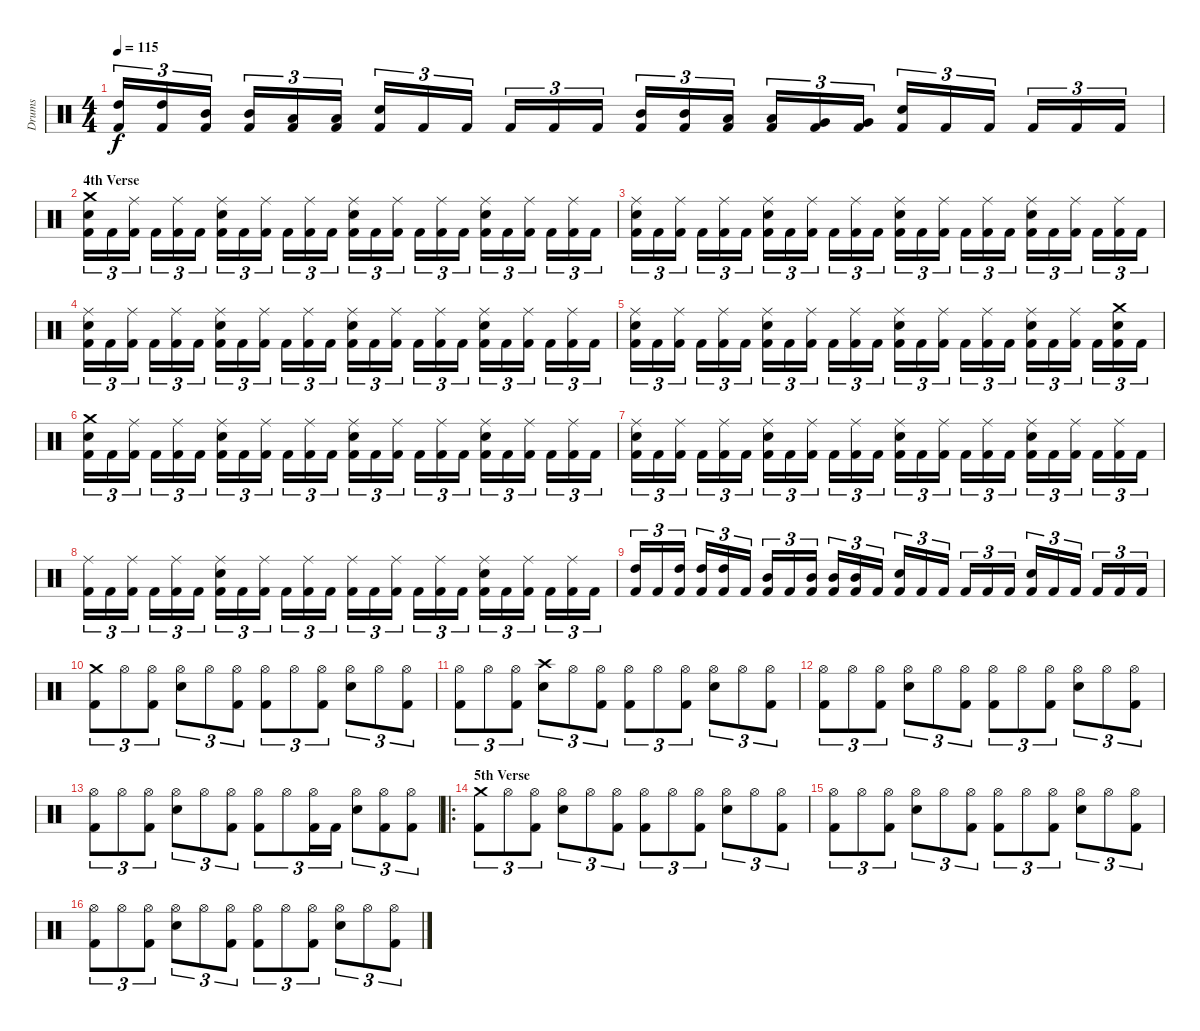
\track ("Drums" "Drums") {instrument percussion}
\staff {score}
\articulation defaults
\ts (4 4)
\tempo 115
\clef neutral
\ks c
("Kick (hit) 2" "High Tom (hit)").16{tu (3 2) dy f} ("Kick (hit) 2" "High Tom (hit)").16{tu (3 2)} ("Kick (hit) 2" "Mid Tom (hit)").16{tu (3 2)} ("Kick (hit) 2" "Mid Tom (hit)").16{tu (3 2)} ("Kick (hit) 2" "Low Tom (hit)").16{tu (3 2)} ("Kick (hit) 2" "Low Tom (hit)").16{tu (3 2)} ("Kick (hit) 2" "Electric Snare (hit)").16{tu (3 2)} "Kick (hit) 2".16{tu (3 2)} "Kick (hit) 2".16{tu (3 2)} "Kick (hit) 2".16{tu (3 2)} "Kick (hit) 2".16{tu (3 2)} "Kick (hit) 2".16{tu (3 2)} ("Kick (hit) 2" "Mid Tom (hit)").16{tu (3 2)} ("Kick (hit) 2" "Mid Tom (hit)").16{tu (3 2)} ("Kick (hit) 2" "Low Tom (hit)").16{tu (3 2)} ("Kick (hit) 2" "Low Tom (hit)").16{tu (3 2)} ("Kick (hit) 2" "Very Low Tom (hit)").16{tu (3 2)} ("Kick (hit) 2" "Very Low Tom (hit)").16{tu (3 2)} ("Kick (hit) 2" "Electric Snare (hit)").16{tu (3 2)} "Kick (hit) 2".16{tu (3 2)} "Kick (hit) 2".16{tu (3 2)} "Kick (hit) 2".16{tu (3 2)} "Kick (hit) 2".16{tu (3 2)} "Kick (hit) 2".16{tu (3 2)} |
\section ("" "4th Verse")
("Kick (hit) 2" "Electric Snare (hit)" "Crash medium (hit)").16{tu (3 2)} "Kick (hit) 2".16{tu (3 2)} ("Kick (hit) 2" "Ride (middle)").16{tu (3 2)} "Kick (hit) 2".16{tu (3 2)} ("Kick (hit) 2" "Ride (middle)").16{tu (3 2)} "Kick (hit) 2".16{tu (3 2)} ("Kick (hit) 2" "Electric Snare (hit)" "Ride (middle)").16{tu (3 2)} "Kick (hit) 2".16{tu (3 2)} ("Kick (hit) 2" "Ride (middle)").16{tu (3 2)} "Kick (hit) 2".16{tu (3 2)} ("Kick (hit) 2" "Ride (middle)").16{tu (3 2)} "Kick (hit) 2".16{tu (3 2)} ("Kick (hit) 2" "Electric Snare (hit)" "Ride (middle)").16{tu (3 2)} "Kick (hit) 2".16{tu (3 2)} ("Kick (hit) 2" "Ride (middle)").16{tu (3 2)} "Kick (hit) 2".16{tu (3 2)} ("Kick (hit) 2" "Ride (middle)").16{tu (3 2)} "Kick (hit) 2".16{tu (3 2)} ("Kick (hit) 2" "Electric Snare (hit)" "Ride (middle)").16{tu (3 2)} "Kick (hit) 2".16{tu (3 2)} ("Kick (hit) 2" "Ride (middle)").16{tu (3 2)} "Kick (hit) 2".16{tu (3 2)} ("Kick (hit) 2" "Ride (middle)").16{tu (3 2)} "Kick (hit) 2".16{tu (3 2)} |
("Kick (hit) 2" "Electric Snare (hit)" "Ride (middle)").16{tu (3 2)} "Kick (hit) 2".16{tu (3 2)} ("Kick (hit) 2" "Ride (middle)").16{tu (3 2)} "Kick (hit) 2".16{tu (3 2)} ("Kick (hit) 2" "Ride (middle)").16{tu (3 2)} "Kick (hit) 2".16{tu (3 2)} ("Kick (hit) 2" "Electric Snare (hit)" "Ride (middle)").16{tu (3 2)} "Kick (hit) 2".16{tu (3 2)} ("Kick (hit) 2" "Ride (middle)").16{tu (3 2)} "Kick (hit) 2".16{tu (3 2)} ("Kick (hit) 2" "Ride (middle)").16{tu (3 2)} "Kick (hit) 2".16{tu (3 2)} ("Kick (hit) 2" "Electric Snare (hit)" "Ride (middle)").16{tu (3 2)} "Kick (hit) 2".16{tu (3 2)} ("Kick (hit) 2" "Ride (middle)").16{tu (3 2)} "Kick (hit) 2".16{tu (3 2)} ("Kick (hit) 2" "Ride (middle)").16{tu (3 2)} "Kick (hit) 2".16{tu (3 2)} ("Kick (hit) 2" "Electric Snare (hit)" "Ride (middle)").16{tu (3 2)} "Kick (hit) 2".16{tu (3 2)} ("Kick (hit) 2" "Ride (middle)").16{tu (3 2)} "Kick (hit) 2".16{tu (3 2)} ("Kick (hit) 2" "Ride (middle)").16{tu (3 2)} "Kick (hit) 2".16{tu (3 2)} |
("Kick (hit) 2" "Electric Snare (hit)" "Ride (middle)").16{tu (3 2)} "Kick (hit) 2".16{tu (3 2)} ("Kick (hit) 2" "Ride (middle)").16{tu (3 2)} "Kick (hit) 2".16{tu (3 2)} ("Kick (hit) 2" "Ride (middle)").16{tu (3 2)} "Kick (hit) 2".16{tu (3 2)} ("Kick (hit) 2" "Electric Snare (hit)" "Ride (middle)").16{tu (3 2)} "Kick (hit) 2".16{tu (3 2)} ("Kick (hit) 2" "Ride (middle)").16{tu (3 2)} "Kick (hit) 2".16{tu (3 2)} ("Kick (hit) 2" "Ride (middle)").16{tu (3 2)} "Kick (hit) 2".16{tu (3 2)} ("Kick (hit) 2" "Electric Snare (hit)" "Ride (middle)").16{tu (3 2)} "Kick (hit) 2".16{tu (3 2)} ("Kick (hit) 2" "Ride (middle)").16{tu (3 2)} "Kick (hit) 2".16{tu (3 2)} ("Kick (hit) 2" "Ride (middle)").16{tu (3 2)} "Kick (hit) 2".16{tu (3 2)} ("Kick (hit) 2" "Electric Snare (hit)" "Ride (middle)").16{tu (3 2)} "Kick (hit) 2".16{tu (3 2)} ("Kick (hit) 2" "Ride (middle)").16{tu (3 2)} "Kick (hit) 2".16{tu (3 2)} ("Kick (hit) 2" "Ride (middle)").16{tu (3 2)} "Kick (hit) 2".16{tu (3 2)} |
("Kick (hit) 2" "Electric Snare (hit)" "Ride (middle)").16{tu (3 2)} "Kick (hit) 2".16{tu (3 2)} ("Kick (hit) 2" "Ride (middle)").16{tu (3 2)} "Kick (hit) 2".16{tu (3 2)} ("Kick (hit) 2" "Ride (middle)").16{tu (3 2)} "Kick (hit) 2".16{tu (3 2)} ("Kick (hit) 2" "Electric Snare (hit)" "Ride (middle)").16{tu (3 2)} "Kick (hit) 2".16{tu (3 2)} ("Kick (hit) 2" "Ride (middle)").16{tu (3 2)} "Kick (hit) 2".16{tu (3 2)} ("Kick (hit) 2" "Ride (middle)").16{tu (3 2)} "Kick (hit) 2".16{tu (3 2)} ("Kick (hit) 2" "Electric Snare (hit)" "Ride (middle)").16{tu (3 2)} "Kick (hit) 2".16{tu (3 2)} ("Kick (hit) 2" "Ride (middle)").16{tu (3 2)} "Kick (hit) 2".16{tu (3 2)} ("Kick (hit) 2" "Ride (middle)").16{tu (3 2)} "Kick (hit) 2".16{tu (3 2)} ("Kick (hit) 2" "Electric Snare (hit)" "Ride (middle)").16{tu (3 2)} "Kick (hit) 2".16{tu (3 2)} ("Kick (hit) 2" "Ride (middle)").16{tu (3 2)} "Kick (hit) 2".16{tu (3 2)} ("Kick (hit) 2" "Electric Snare (hit)" "Crash medium (hit)").16{tu (3 2)} "Kick (hit) 2".16{tu (3 2)} |
("Kick (hit) 2" "Electric Snare (hit)" "Crash medium (hit)").16{tu (3 2)} "Kick (hit) 2".16{tu (3 2)} ("Kick (hit) 2" "Ride (middle)").16{tu (3 2)} "Kick (hit) 2".16{tu (3 2)} ("Kick (hit) 2" "Ride (middle)").16{tu (3 2)} "Kick (hit) 2".16{tu (3 2)} ("Kick (hit) 2" "Electric Snare (hit)" "Ride (middle)").16{tu (3 2)} "Kick (hit) 2".16{tu (3 2)} ("Kick (hit) 2" "Ride (middle)").16{tu (3 2)} "Kick (hit) 2".16{tu (3 2)} ("Kick (hit) 2" "Ride (middle)").16{tu (3 2)} "Kick (hit) 2".16{tu (3 2)} ("Kick (hit) 2" "Electric Snare (hit)" "Ride (middle)").16{tu (3 2)} "Kick (hit) 2".16{tu (3 2)} ("Kick (hit) 2" "Ride (middle)").16{tu (3 2)} "Kick (hit) 2".16{tu (3 2)} ("Kick (hit) 2" "Ride (middle)").16{tu (3 2)} "Kick (hit) 2".16{tu (3 2)} ("Kick (hit) 2" "Electric Snare (hit)" "Ride (middle)").16{tu (3 2)} "Kick (hit) 2".16{tu (3 2)} ("Kick (hit) 2" "Ride (middle)").16{tu (3 2)} "Kick (hit) 2".16{tu (3 2)} ("Kick (hit) 2" "Ride (middle)").16{tu (3 2)} "Kick (hit) 2".16{tu (3 2)} |
("Kick (hit) 2" "Electric Snare (hit)" "Ride (middle)").16{tu (3 2)} "Kick (hit) 2".16{tu (3 2)} ("Kick (hit) 2" "Ride (middle)").16{tu (3 2)} "Kick (hit) 2".16{tu (3 2)} ("Kick (hit) 2" "Ride (middle)").16{tu (3 2)} "Kick (hit) 2".16{tu (3 2)} ("Kick (hit) 2" "Electric Snare (hit)" "Ride (middle)").16{tu (3 2)} "Kick (hit) 2".16{tu (3 2)} ("Kick (hit) 2" "Ride (middle)").16{tu (3 2)} "Kick (hit) 2".16{tu (3 2)} ("Kick (hit) 2" "Ride (middle)").16{tu (3 2)} "Kick (hit) 2".16{tu (3 2)} ("Kick (hit) 2" "Electric Snare (hit)" "Ride (middle)").16{tu (3 2)} "Kick (hit) 2".16{tu (3 2)} ("Kick (hit) 2" "Ride (middle)").16{tu (3 2)} "Kick (hit) 2".16{tu (3 2)} ("Kick (hit) 2" "Ride (middle)").16{tu (3 2)} "Kick (hit) 2".16{tu (3 2)} ("Kick (hit) 2" "Electric Snare (hit)" "Ride (middle)").16{tu (3 2)} "Kick (hit) 2".16{tu (3 2)} ("Kick (hit) 2" "Ride (middle)").16{tu (3 2)} "Kick (hit) 2".16{tu (3 2)} ("Kick (hit) 2" "Ride (middle)").16{tu (3 2)} "Kick (hit) 2".16{tu (3 2)} |
("Kick (hit) 2" "Ride (middle)").16{tu (3 2)} "Kick (hit) 2".16{tu (3 2)} ("Kick (hit) 2" "Ride (middle)").16{tu (3 2)} "Kick (hit) 2".16{tu (3 2)} ("Kick (hit) 2" "Ride (middle)").16{tu (3 2)} "Kick (hit) 2".16{tu (3 2)} ("Kick (hit) 2" "Electric Snare (hit)" "Ride (middle)").16{tu (3 2)} "Kick (hit) 2".16{tu (3 2)} ("Kick (hit) 2" "Ride (middle)").16{tu (3 2)} "Kick (hit) 2".16{tu (3 2)} ("Kick (hit) 2" "Ride (middle)").16{tu (3 2)} "Kick (hit) 2".16{tu (3 2)} ("Kick (hit) 2" "Ride (middle)").16{tu (3 2)} "Kick (hit) 2".16{tu (3 2)} ("Kick (hit) 2" "Ride (middle)").16{tu (3 2)} "Kick (hit) 2".16{tu (3 2)} ("Kick (hit) 2" "Ride (middle)").16{tu (3 2)} "Kick (hit) 2".16{tu (3 2)} ("Kick (hit) 2" "Electric Snare (hit)" "Ride (middle)").16{tu (3 2)} "Kick (hit) 2".16{tu (3 2)} ("Kick (hit) 2" "Ride (middle)").16{tu (3 2)} "Kick (hit) 2".16{tu (3 2)} ("Kick (hit) 2" "Ride (middle)").16{tu (3 2)} "Kick (hit) 2".16{tu (3 2)} |
("Kick (hit) 2" "High Tom (hit)").16{tu (3 2)} "Kick (hit) 2".16{tu (3 2)} ("Kick (hit) 2" "High Tom (hit)").16{tu (3 2)} ("Kick (hit) 2" "High Tom (hit)").16{tu (3 2)} ("Kick (hit) 2" "High Tom (hit)").16{tu (3 2)} "Kick (hit) 2".16{tu (3 2)} ("Kick (hit) 2" "Mid Tom (hit)").16{tu (3 2)} "Kick (hit) 2".16{tu (3 2)} ("Kick (hit) 2" "Mid Tom (hit)").16{tu (3 2)} ("Kick (hit) 2" "Mid Tom (hit)").16{tu (3 2)} ("Kick (hit) 2" "Mid Tom (hit)").16{tu (3 2)} "Kick (hit) 2".16{tu (3 2)} ("Kick (hit) 2" "Electric Snare (hit)").16{tu (3 2)} "Kick (hit) 2".16{tu (3 2)} "Kick (hit) 2".16{tu (3 2)} "Kick (hit) 2".16{tu (3 2)} "Kick (hit) 2".16{tu (3 2)} "Kick (hit) 2".16{tu (3 2)} ("Kick (hit) 2" "Electric Snare (hit)").16{tu (3 2)} "Kick (hit) 2".16{tu (3 2)} "Kick (hit) 2".16{tu (3 2)} "Kick (hit) 2".16{tu (3 2)} "Kick (hit) 2".16{tu (3 2)} "Kick (hit) 2".16{tu (3 2)} |
("Kick (hit) 2" "Crash medium (hit)").8{tu (3 2)} "Hi-Hat (open)".8{tu (3 2)} ("Kick (hit) 2" "Hi-Hat (open)").8{tu (3 2)} ("Electric Snare (hit)" "Hi-Hat (open)").8{tu (3 2)} "Hi-Hat (open)".8{tu (3 2)} ("Kick (hit) 2" "Hi-Hat (open)").8{tu (3 2)} ("Kick (hit) 2" "Hi-Hat (open)").8{tu (3 2)} "Hi-Hat (open)".8{tu (3 2)} ("Kick (hit) 2" "Hi-Hat (open)").8{tu (3 2)} ("Electric Snare (hit)" "Hi-Hat (open)").8{tu (3 2)} "Hi-Hat (open)".8{tu (3 2)} ("Kick (hit) 2" "Hi-Hat (open)").8{tu (3 2)} |
("Kick (hit) 2" "Hi-Hat (open)").8{tu (3 2)} "Hi-Hat (open)".8{tu (3 2)} ("Kick (hit) 2" "Hi-Hat (open)").8{tu (3 2)} ("Electric Snare (hit)" "Crash high (hit)").8{tu (3 2)} "Hi-Hat (open)".8{tu (3 2)} ("Kick (hit) 2" "Hi-Hat (open)").8{tu (3 2)} ("Kick (hit) 2" "Hi-Hat (open)").8{tu (3 2)} "Hi-Hat (open)".8{tu (3 2)} ("Kick (hit) 2" "Hi-Hat (open)").8{tu (3 2)} ("Electric Snare (hit)" "Hi-Hat (open)").8{tu (3 2)} "Hi-Hat (open)".8{tu (3 2)} ("Kick (hit) 2" "Hi-Hat (open)").8{tu (3 2)} |
("Kick (hit) 2" "Hi-Hat (open)").8{tu (3 2)} "Hi-Hat (open)".8{tu (3 2)} ("Kick (hit) 2" "Hi-Hat (open)").8{tu (3 2)} ("Electric Snare (hit)" "Hi-Hat (open)").8{tu (3 2)} "Hi-Hat (open)".8{tu (3 2)} ("Kick (hit) 2" "Hi-Hat (open)").8{tu (3 2)} ("Kick (hit) 2" "Hi-Hat (open)").8{tu (3 2)} "Hi-Hat (open)".8{tu (3 2)} ("Kick (hit) 2" "Hi-Hat (open)").8{tu (3 2)} ("Electric Snare (hit)" "Hi-Hat (open)").8{tu (3 2)} "Hi-Hat (open)".8{tu (3 2)} ("Kick (hit) 2" "Hi-Hat (open)").8{tu (3 2)} |
("Kick (hit) 2" "Hi-Hat (open)").8{tu (3 2)} "Hi-Hat (open)".8{tu (3 2)} ("Kick (hit) 2" "Hi-Hat (open)").8{tu (3 2)} ("Electric Snare (hit)" "Hi-Hat (open)").8{tu (3 2)} "Hi-Hat (open)".8{tu (3 2)} ("Kick (hit) 2" "Hi-Hat (open)").8{tu (3 2)} ("Kick (hit) 2" "Hi-Hat (open)").8{tu (3 2)} "Hi-Hat (open)".8{tu (3 2)} ("Kick (hit) 2" "Hi-Hat (open)").16{tu (3 2)} "Kick (hit) 2".16{tu (3 2)} ("Electric Snare (hit)" "Hi-Hat (open)").8{tu (3 2)} ("Kick (hit) 2" "Hi-Hat (open)").8{tu (3 2)} ("Kick (hit) 2" "Hi-Hat (open)").8{tu (3 2)} |
\ro
\section ("" "5th Verse")
("Kick (hit) 2" "Crash medium (hit)").8{tu (3 2)} "Hi-Hat (open)".8{tu (3 2)} ("Kick (hit) 2" "Hi-Hat (open)").8{tu (3 2)} ("Electric Snare (hit)" "Hi-Hat (open)").8{tu (3 2)} "Hi-Hat (open)".8{tu (3 2)} ("Kick (hit) 2" "Hi-Hat (open)").8{tu (3 2)} ("Kick (hit) 2" "Hi-Hat (open)").8{tu (3 2)} "Hi-Hat (open)".8{tu (3 2)} ("Kick (hit) 2" "Hi-Hat (open)").8{tu (3 2)} ("Electric Snare (hit)" "Hi-Hat (open)").8{tu (3 2)} "Hi-Hat (open)".8{tu (3 2)} ("Kick (hit) 2" "Hi-Hat (open)").8{tu (3 2)} |
("Kick (hit) 2" "Hi-Hat (open)").8{tu (3 2)} "Hi-Hat (open)".8{tu (3 2)} ("Kick (hit) 2" "Hi-Hat (open)").8{tu (3 2)} ("Electric Snare (hit)" "Hi-Hat (open)").8{tu (3 2)} "Hi-Hat (open)".8{tu (3 2)} ("Kick (hit) 2" "Hi-Hat (open)").8{tu (3 2)} ("Kick (hit) 2" "Hi-Hat (open)").8{tu (3 2)} "Hi-Hat (open)".8{tu (3 2)} ("Kick (hit) 2" "Hi-Hat (open)").8{tu (3 2)} ("Electric Snare (hit)" "Hi-Hat (open)").8{tu (3 2)} "Hi-Hat (open)".8{tu (3 2)} ("Kick (hit) 2" "Hi-Hat (open)").8{tu (3 2)} |
("Kick (hit) 2" "Hi-Hat (open)").8{tu (3 2)} "Hi-Hat (open)".8{tu (3 2)} ("Kick (hit) 2" "Hi-Hat (open)").8{tu (3 2)} ("Electric Snare (hit)" "Hi-Hat (open)").8{tu (3 2)} "Hi-Hat (open)".8{tu (3 2)} ("Kick (hit) 2" "Hi-Hat (open)").8{tu (3 2)} ("Kick (hit) 2" "Hi-Hat (open)").8{tu (3 2)} "Hi-Hat (open)".8{tu (3 2)} ("Kick (hit) 2" "Hi-Hat (open)").8{tu (3 2)} ("Electric Snare (hit)" "Hi-Hat (open)").8{tu (3 2)} "Hi-Hat (open)".8{tu (3 2)} ("Kick (hit) 2" "Hi-Hat (open)").8{tu (3 2)}
